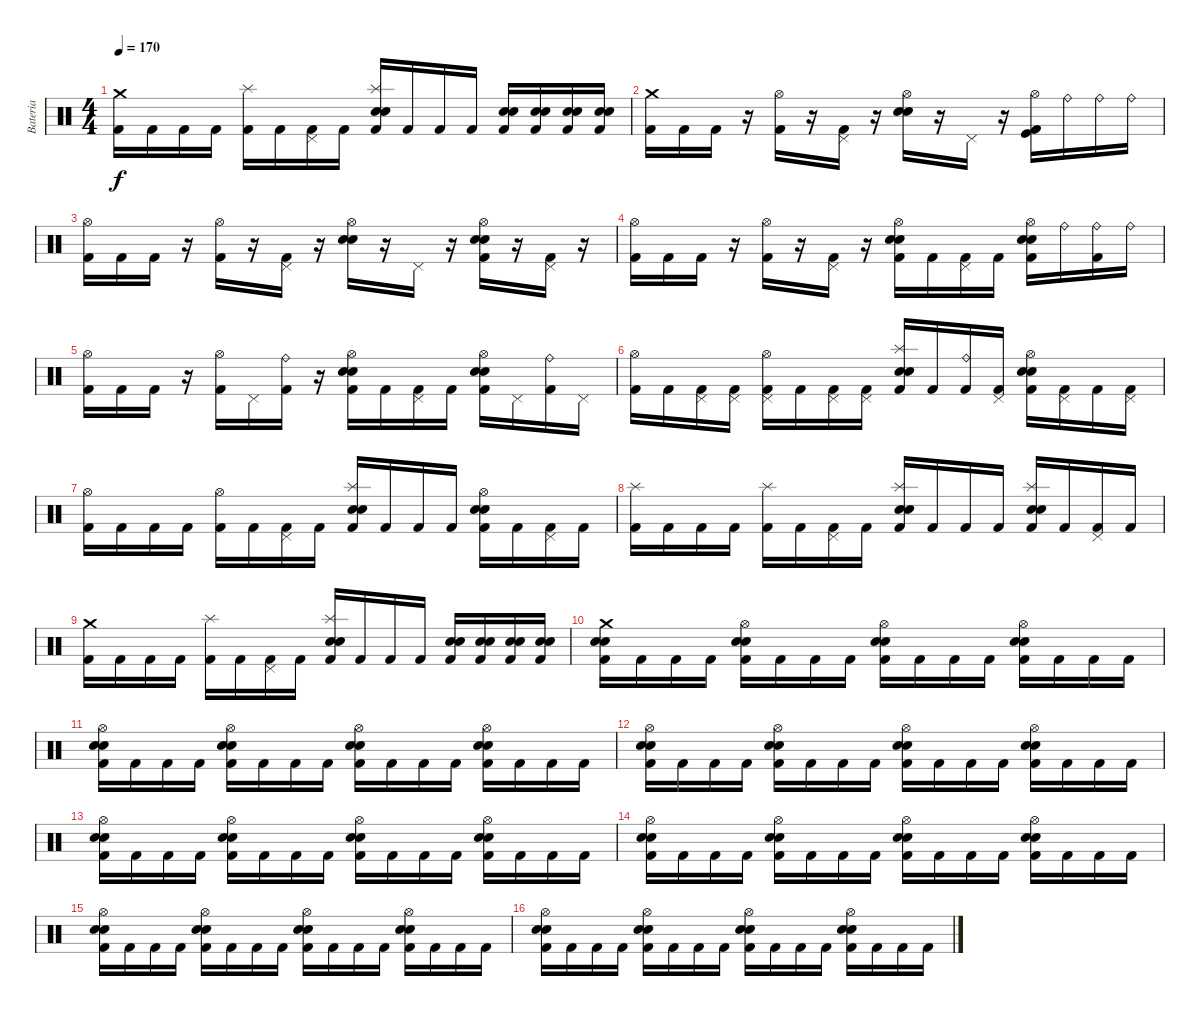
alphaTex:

\track ("Bateria" "Bateria") {instrument percussion}
\staff {score}
\articulation defaults
\ts (4 4)
\tempo 170
\clef neutral
\ks c
("Crash medium (hit)" "Kick (hit) 2").16{dy f} "Kick (hit) 2".16 "Kick (hit) 2".16 "Kick (hit) 2".16 ("Splash (hit)" "Kick (hit) 2").16 "Kick (hit) 2".16 ("Pedal Hi-Hat (hit)" "Kick (hit) 2").16 "Kick (hit) 2".16 ("Splash (hit)" "Electric Snare (hit)" "Snare (hit) 2" "Kick (hit) 2").16 "Kick (hit) 2".16 "Kick (hit) 2".16 "Kick (hit) 2".16 ("Electric Snare (hit)" "Snare (hit) 2" "Kick (hit) 2").16 ("Electric Snare (hit)" "Snare (hit) 2" "Kick (hit) 2").16 ("Electric Snare (hit)" "Snare (hit) 2" "Kick (hit) 2").16 ("Electric Snare (hit)" "Snare (hit) 2" "Kick (hit) 2").16 |
("Crash medium (hit)" "Kick (hit) 2").16 "Kick (hit) 2".16 "Kick (hit) 2".16 r.16 ("Hi-Hat (open)" "Kick (hit) 2").16 r.16 ("Pedal Hi-Hat (hit)" "Kick (hit) 2").16 r.16 ("Hi-Hat (open)" "Electric Snare (hit)" "Snare (hit) 2").16 r.16 "Pedal Hi-Hat (hit)".16 r.16 ("Hi-Hat (open)" "Kick (hit)" "Kick (hit) 2").16 "Ride (bell)".16 "Ride (bell)".16 "Ride (bell)".16 |
("Hi-Hat (open)" "Kick (hit) 2").16 "Kick (hit) 2".16 "Kick (hit) 2".16 r.16 ("Hi-Hat (open)" "Kick (hit) 2").16 r.16 ("Pedal Hi-Hat (hit)" "Kick (hit) 2").16 r.16 ("Hi-Hat (open)" "Electric Snare (hit)" "Snare (hit) 2").16 r.16 "Pedal Hi-Hat (hit)".16 r.16 ("Hi-Hat (open)" "Electric Snare (hit)" "Snare (hit) 2" "Kick (hit) 2").16 r.16 ("Pedal Hi-Hat (hit)" "Kick (hit) 2").16 r.16 |
("Hi-Hat (open)" "Kick (hit) 2").16 "Kick (hit) 2".16 "Kick (hit) 2".16 r.16 ("Hi-Hat (open)" "Kick (hit) 2").16 r.16 ("Pedal Hi-Hat (hit)" "Kick (hit) 2").16 r.16 ("Hi-Hat (open)" "Electric Snare (hit)" "Snare (hit) 2" "Kick (hit) 2").16 "Kick (hit) 2".16 ("Pedal Hi-Hat (hit)" "Kick (hit) 2").16 "Kick (hit) 2".16 ("Hi-Hat (open)" "Electric Snare (hit)" "Snare (hit) 2" "Kick (hit) 2").16 "Ride (bell)".16 ("Ride (bell)" "Kick (hit) 2").16 "Ride (bell)".16 |
("Hi-Hat (open)" "Kick (hit) 2").16 "Kick (hit) 2".16 "Kick (hit) 2".16 r.16 ("Hi-Hat (open)" "Kick (hit) 2").16 "Pedal Hi-Hat (hit)".16 ("Ride (bell)" "Kick (hit) 2").16 r.16 ("Hi-Hat (open)" "Electric Snare (hit)" "Snare (hit) 2" "Kick (hit) 2").16 "Kick (hit) 2".16 ("Pedal Hi-Hat (hit)" "Kick (hit) 2").16 "Kick (hit) 2".16 ("Hi-Hat (open)" "Electric Snare (hit)" "Snare (hit) 2" "Kick (hit) 2").16 "Pedal Hi-Hat (hit)".16 ("Ride (bell)" "Kick (hit) 2").16 "Pedal Hi-Hat (hit)".16 |
("Hi-Hat (open)" "Kick (hit) 2").16 "Kick (hit) 2".16 ("Pedal Hi-Hat (hit)" "Kick (hit) 2").16 ("Pedal Hi-Hat (hit)" "Kick (hit) 2").16 ("Hi-Hat (open)" "Pedal Hi-Hat (hit)" "Kick (hit) 2").16 "Kick (hit) 2".16 ("Pedal Hi-Hat (hit)" "Kick (hit) 2").16 ("Pedal Hi-Hat (hit)" "Kick (hit) 2").16 ("Splash (hit)" "Electric Snare (hit)" "Snare (hit) 2" "Kick (hit) 2").16 "Kick (hit) 2".16 ("Ride (bell)" "Kick (hit) 2").16 ("Pedal Hi-Hat (hit)" "Kick (hit) 2").16 ("Hi-Hat (open)" "Electric Snare (hit)" "Snare (hit) 2" "Kick (hit) 2").16 ("Pedal Hi-Hat (hit)" "Kick (hit) 2").16 "Kick (hit) 2".16 ("Pedal Hi-Hat (hit)" "Kick (hit) 2").16 |
("Hi-Hat (open)" "Kick (hit) 2").16 "Kick (hit) 2".16 "Kick (hit) 2".16 "Kick (hit) 2".16 ("Hi-Hat (open)" "Kick (hit) 2").16 "Kick (hit) 2".16 ("Pedal Hi-Hat (hit)" "Kick (hit) 2").16 "Kick (hit) 2".16 ("Splash (hit)" "Electric Snare (hit)" "Snare (hit) 2" "Kick (hit) 2").16 "Kick (hit) 2".16 "Kick (hit) 2".16 "Kick (hit) 2".16 ("Hi-Hat (open)" "Electric Snare (hit)" "Snare (hit) 2" "Kick (hit) 2").16 "Kick (hit) 2".16 ("Pedal Hi-Hat (hit)" "Kick (hit) 2").16 "Kick (hit) 2".16 |
("Splash (hit)" "Kick (hit) 2").16 "Kick (hit) 2".16 "Kick (hit) 2".16 "Kick (hit) 2".16 ("Splash (hit)" "Kick (hit) 2").16 "Kick (hit) 2".16 ("Pedal Hi-Hat (hit)" "Kick (hit) 2").16 "Kick (hit) 2".16 ("Splash (hit)" "Electric Snare (hit)" "Snare (hit) 2" "Kick (hit) 2").16 "Kick (hit) 2".16 "Kick (hit) 2".16 "Kick (hit) 2".16 ("Splash (hit)" "Electric Snare (hit)" "Snare (hit) 2" "Kick (hit) 2").16 "Kick (hit) 2".16 ("Pedal Hi-Hat (hit)" "Kick (hit) 2").16 "Kick (hit) 2".16 |
("Crash medium (hit)" "Kick (hit) 2").16 "Kick (hit) 2".16 "Kick (hit) 2".16 "Kick (hit) 2".16 ("Splash (hit)" "Kick (hit) 2").16 "Kick (hit) 2".16 ("Pedal Hi-Hat (hit)" "Kick (hit) 2").16 "Kick (hit) 2".16 ("Splash (hit)" "Electric Snare (hit)" "Snare (hit) 2" "Kick (hit) 2").16 "Kick (hit) 2".16 "Kick (hit) 2".16 "Kick (hit) 2".16 ("Electric Snare (hit)" "Snare (hit) 2" "Kick (hit) 2").16 ("Electric Snare (hit)" "Snare (hit) 2" "Kick (hit) 2").16 ("Electric Snare (hit)" "Snare (hit) 2" "Kick (hit) 2").16 ("Electric Snare (hit)" "Snare (hit) 2" "Kick (hit) 2").16 |
("Crash medium (hit)" "Electric Snare (hit)" "Snare (hit) 2" "Kick (hit) 2").16 "Kick (hit) 2".16 "Kick (hit) 2".16 "Kick (hit) 2".16 ("Hi-Hat (open)" "Electric Snare (hit)" "Snare (hit) 2" "Kick (hit) 2").16 "Kick (hit) 2".16 "Kick (hit) 2".16 "Kick (hit) 2".16 ("Hi-Hat (open)" "Electric Snare (hit)" "Snare (hit) 2" "Kick (hit) 2").16 "Kick (hit) 2".16 "Kick (hit) 2".16 "Kick (hit) 2".16 ("Hi-Hat (open)" "Electric Snare (hit)" "Snare (hit) 2" "Kick (hit) 2").16 "Kick (hit) 2".16 "Kick (hit) 2".16 "Kick (hit) 2".16 |
("Hi-Hat (open)" "Electric Snare (hit)" "Snare (hit) 2" "Kick (hit) 2").16 "Kick (hit) 2".16 "Kick (hit) 2".16 "Kick (hit) 2".16 ("Hi-Hat (open)" "Electric Snare (hit)" "Snare (hit) 2" "Kick (hit) 2").16 "Kick (hit) 2".16 "Kick (hit) 2".16 "Kick (hit) 2".16 ("Hi-Hat (open)" "Electric Snare (hit)" "Snare (hit) 2" "Kick (hit) 2").16 "Kick (hit) 2".16 "Kick (hit) 2".16 "Kick (hit) 2".16 ("Hi-Hat (open)" "Electric Snare (hit)" "Snare (hit) 2" "Kick (hit) 2").16 "Kick (hit) 2".16 "Kick (hit) 2".16 "Kick (hit) 2".16 |
("Hi-Hat (open)" "Electric Snare (hit)" "Snare (hit) 2" "Kick (hit) 2").16 "Kick (hit) 2".16 "Kick (hit) 2".16 "Kick (hit) 2".16 ("Hi-Hat (open)" "Electric Snare (hit)" "Snare (hit) 2" "Kick (hit) 2").16 "Kick (hit) 2".16 "Kick (hit) 2".16 "Kick (hit) 2".16 ("Hi-Hat (open)" "Electric Snare (hit)" "Snare (hit) 2" "Kick (hit) 2").16 "Kick (hit) 2".16 "Kick (hit) 2".16 "Kick (hit) 2".16 ("Hi-Hat (open)" "Electric Snare (hit)" "Snare (hit) 2" "Kick (hit) 2").16 "Kick (hit) 2".16 "Kick (hit) 2".16 "Kick (hit) 2".16 |
("Hi-Hat (open)" "Electric Snare (hit)" "Snare (hit) 2" "Kick (hit) 2").16 "Kick (hit) 2".16 "Kick (hit) 2".16 "Kick (hit) 2".16 ("Hi-Hat (open)" "Electric Snare (hit)" "Snare (hit) 2" "Kick (hit) 2").16 "Kick (hit) 2".16 "Kick (hit) 2".16 "Kick (hit) 2".16 ("Hi-Hat (open)" "Electric Snare (hit)" "Snare (hit) 2" "Kick (hit) 2").16 "Kick (hit) 2".16 "Kick (hit) 2".16 "Kick (hit) 2".16 ("Hi-Hat (open)" "Electric Snare (hit)" "Snare (hit) 2" "Kick (hit) 2").16 "Kick (hit) 2".16 "Kick (hit) 2".16 "Kick (hit) 2".16 |
("Hi-Hat (open)" "Electric Snare (hit)" "Snare (hit) 2" "Kick (hit) 2").16 "Kick (hit) 2".16 "Kick (hit) 2".16 "Kick (hit) 2".16 ("Hi-Hat (open)" "Electric Snare (hit)" "Snare (hit) 2" "Kick (hit) 2").16 "Kick (hit) 2".16 "Kick (hit) 2".16 "Kick (hit) 2".16 ("Hi-Hat (open)" "Electric Snare (hit)" "Snare (hit) 2" "Kick (hit) 2").16 "Kick (hit) 2".16 "Kick (hit) 2".16 "Kick (hit) 2".16 ("Hi-Hat (open)" "Electric Snare (hit)" "Snare (hit) 2" "Kick (hit) 2").16 "Kick (hit) 2".16 "Kick (hit) 2".16 "Kick (hit) 2".16 |
("Hi-Hat (open)" "Electric Snare (hit)" "Snare (hit) 2" "Kick (hit) 2").16 "Kick (hit) 2".16 "Kick (hit) 2".16 "Kick (hit) 2".16 ("Hi-Hat (open)" "Electric Snare (hit)" "Snare (hit) 2" "Kick (hit) 2").16 "Kick (hit) 2".16 "Kick (hit) 2".16 "Kick (hit) 2".16 ("Hi-Hat (open)" "Electric Snare (hit)" "Snare (hit) 2" "Kick (hit) 2").16 "Kick (hit) 2".16 "Kick (hit) 2".16 "Kick (hit) 2".16 ("Hi-Hat (open)" "Electric Snare (hit)" "Snare (hit) 2" "Kick (hit) 2").16 "Kick (hit) 2".16 "Kick (hit) 2".16 "Kick (hit) 2".16 |
("Hi-Hat (open)" "Electric Snare (hit)" "Snare (hit) 2" "Kick (hit) 2").16 "Kick (hit) 2".16 "Kick (hit) 2".16 "Kick (hit) 2".16 ("Hi-Hat (open)" "Electric Snare (hit)" "Snare (hit) 2" "Kick (hit) 2").16 "Kick (hit) 2".16 "Kick (hit) 2".16 "Kick (hit) 2".16 ("Hi-Hat (open)" "Electric Snare (hit)" "Snare (hit) 2" "Kick (hit) 2").16 "Kick (hit) 2".16 "Kick (hit) 2".16 "Kick (hit) 2".16 ("Hi-Hat (open)" "Electric Snare (hit)" "Snare (hit) 2" "Kick (hit) 2").16 "Kick (hit) 2".16 "Kick (hit) 2".16 "Kick (hit) 2".16
